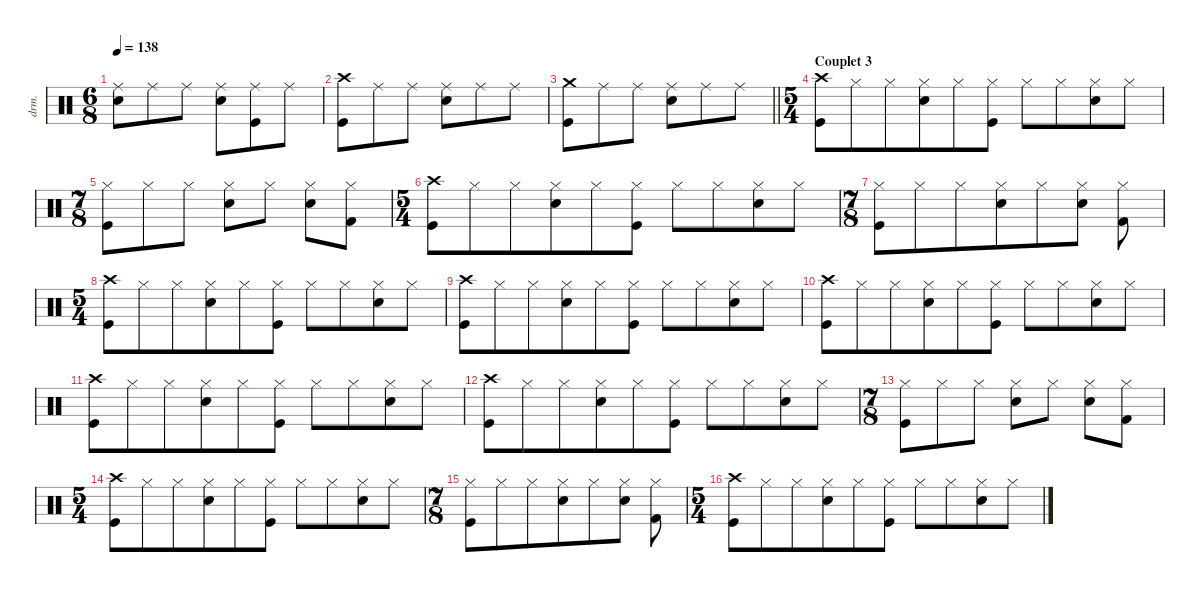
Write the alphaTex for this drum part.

\defaultSystemsLayout 4
\hideDynamics
\bracketExtendMode nobrackets
\track ("Percussions" "drm.") {instrument percussion}
\staff {score}
\articulation defaults
\ts (6 8)
\tempo 138
\clef neutral
\ks aminor
("Ride (middle)" "Snare (hit) 2").8{dy f} "Ride (middle)".8{dy mp} "Ride (middle)".8 ("Ride (middle)" "Snare (hit) 2").8{dy f} ("Ride (middle)" "Kick (hit)").8{dy mp} "Ride (middle)".8 |
("Crash high (hit)" "Kick (hit)").8{dy f} "Ride (middle)".8{dy mp} "Ride (middle)".8 ("Ride (middle)" "Snare (hit) 2").8{dy f} "Ride (middle)".8{dy mp} "Ride (middle)".8 |
\barLineRight lightlight
("Crash medium (hit)" "Kick (hit)").8{dy f} "Ride (middle)".8{dy mf} "Ride (middle)".8 ("Ride (middle)" "Snare (hit) 2").8{dy f} "Ride (middle)".8{dy mf} "Ride (middle)".8 |
\ts (5 4)
\beaming (8 6 4)
\section ("" "Couplet 3")
("Crash high (hit)" "Kick (hit)").8{dy f} "Hi-Hat (closed)".8 "Hi-Hat (closed)".8 ("Hi-Hat (closed)" "Snare (hit) 2").8 "Hi-Hat (closed)".8 ("Hi-Hat (closed)" "Kick (hit)").8 "Hi-Hat (closed)".8 "Hi-Hat (closed)".8 ("Hi-Hat (closed)" "Snare (hit) 2").8 "Hi-Hat (closed)".8 |
\ts (7 8)
\beaming (8 3 2 2)
("Hi-Hat (closed)" "Kick (hit)").8 "Hi-Hat (closed)".8 "Hi-Hat (closed)".8 ("Hi-Hat (closed)" "Snare (hit) 2").8 "Hi-Hat (closed)".8 ("Hi-Hat (closed)" "Snare (hit) 2").8 ("Hi-Hat (closed)" "Kick (hit) 2").8 |
\ts (5 4)
\beaming (8 6 4)
("Crash high (hit)" "Kick (hit)").8 "Hi-Hat (closed)".8 "Hi-Hat (closed)".8 ("Hi-Hat (closed)" "Snare (hit) 2").8 "Hi-Hat (closed)".8 ("Hi-Hat (closed)" "Kick (hit)").8 "Hi-Hat (closed)".8 "Hi-Hat (closed)".8 ("Hi-Hat (closed)" "Snare (hit) 2").8 "Hi-Hat (closed)".8 |
\ts (7 8)
\beaming (8 6 4)
("Hi-Hat (closed)" "Kick (hit)").8 "Hi-Hat (closed)".8 "Hi-Hat (closed)".8 ("Hi-Hat (closed)" "Snare (hit) 2").8 "Hi-Hat (closed)".8 ("Hi-Hat (closed)" "Snare (hit) 2").8 ("Hi-Hat (closed)" "Kick (hit) 2").8 |
\ts (5 4)
\beaming (8 6 4)
("Crash high (hit)" "Kick (hit)").8 "Hi-Hat (closed)".8 "Hi-Hat (closed)".8 ("Hi-Hat (closed)" "Snare (hit) 2").8 "Hi-Hat (closed)".8 ("Hi-Hat (closed)" "Kick (hit)").8 "Hi-Hat (closed)".8 "Hi-Hat (closed)".8 ("Hi-Hat (closed)" "Snare (hit) 2").8 "Hi-Hat (closed)".8 |
("Crash high (hit)" "Kick (hit)").8 "Hi-Hat (closed)".8 "Hi-Hat (closed)".8 ("Hi-Hat (closed)" "Snare (hit) 2").8 "Hi-Hat (closed)".8 ("Hi-Hat (closed)" "Kick (hit)").8 "Hi-Hat (closed)".8 "Hi-Hat (closed)".8 ("Hi-Hat (closed)" "Snare (hit) 2").8 "Hi-Hat (closed)".8 |
("Crash high (hit)" "Kick (hit)").8 "Hi-Hat (closed)".8 "Hi-Hat (closed)".8 ("Hi-Hat (closed)" "Snare (hit) 2").8 "Hi-Hat (closed)".8 ("Hi-Hat (closed)" "Kick (hit)").8 "Hi-Hat (closed)".8 "Hi-Hat (closed)".8 ("Hi-Hat (closed)" "Snare (hit) 2").8 "Hi-Hat (closed)".8 |
("Crash high (hit)" "Kick (hit)").8 "Hi-Hat (closed)".8 "Hi-Hat (closed)".8 ("Hi-Hat (closed)" "Snare (hit) 2").8 "Hi-Hat (closed)".8 ("Hi-Hat (closed)" "Kick (hit)").8 "Hi-Hat (closed)".8 "Hi-Hat (closed)".8 ("Hi-Hat (closed)" "Snare (hit) 2").8 "Hi-Hat (closed)".8 |
("Crash high (hit)" "Kick (hit)").8 "Hi-Hat (closed)".8 "Hi-Hat (closed)".8 ("Hi-Hat (closed)" "Snare (hit) 2").8 "Hi-Hat (closed)".8 ("Hi-Hat (closed)" "Kick (hit)").8 "Hi-Hat (closed)".8 "Hi-Hat (closed)".8 ("Hi-Hat (closed)" "Snare (hit) 2").8 "Hi-Hat (closed)".8 |
\ts (7 8)
\beaming (8 3 2 2)
("Hi-Hat (closed)" "Kick (hit)").8 "Hi-Hat (closed)".8 "Hi-Hat (closed)".8 ("Hi-Hat (closed)" "Snare (hit) 2").8 "Hi-Hat (closed)".8 ("Hi-Hat (closed)" "Snare (hit) 2").8 ("Hi-Hat (closed)" "Kick (hit) 2").8 |
\ts (5 4)
\beaming (8 6 4)
("Crash high (hit)" "Kick (hit)").8 "Hi-Hat (closed)".8 "Hi-Hat (closed)".8 ("Hi-Hat (closed)" "Snare (hit) 2").8 "Hi-Hat (closed)".8 ("Hi-Hat (closed)" "Kick (hit)").8 "Hi-Hat (closed)".8 "Hi-Hat (closed)".8 ("Hi-Hat (closed)" "Snare (hit) 2").8 "Hi-Hat (closed)".8 |
\ts (7 8)
\beaming (8 6 4)
("Hi-Hat (closed)" "Kick (hit)").8 "Hi-Hat (closed)".8 "Hi-Hat (closed)".8 ("Hi-Hat (closed)" "Snare (hit) 2").8 "Hi-Hat (closed)".8 ("Hi-Hat (closed)" "Snare (hit) 2").8 ("Hi-Hat (closed)" "Kick (hit) 2").8 |
\ts (5 4)
\beaming (8 6 4)
("Crash high (hit)" "Kick (hit)").8 "Hi-Hat (closed)".8 "Hi-Hat (closed)".8 ("Hi-Hat (closed)" "Snare (hit) 2").8 "Hi-Hat (closed)".8 ("Hi-Hat (closed)" "Kick (hit)").8 "Hi-Hat (closed)".8 "Hi-Hat (closed)".8 ("Hi-Hat (closed)" "Snare (hit) 2").8 "Hi-Hat (closed)".8
